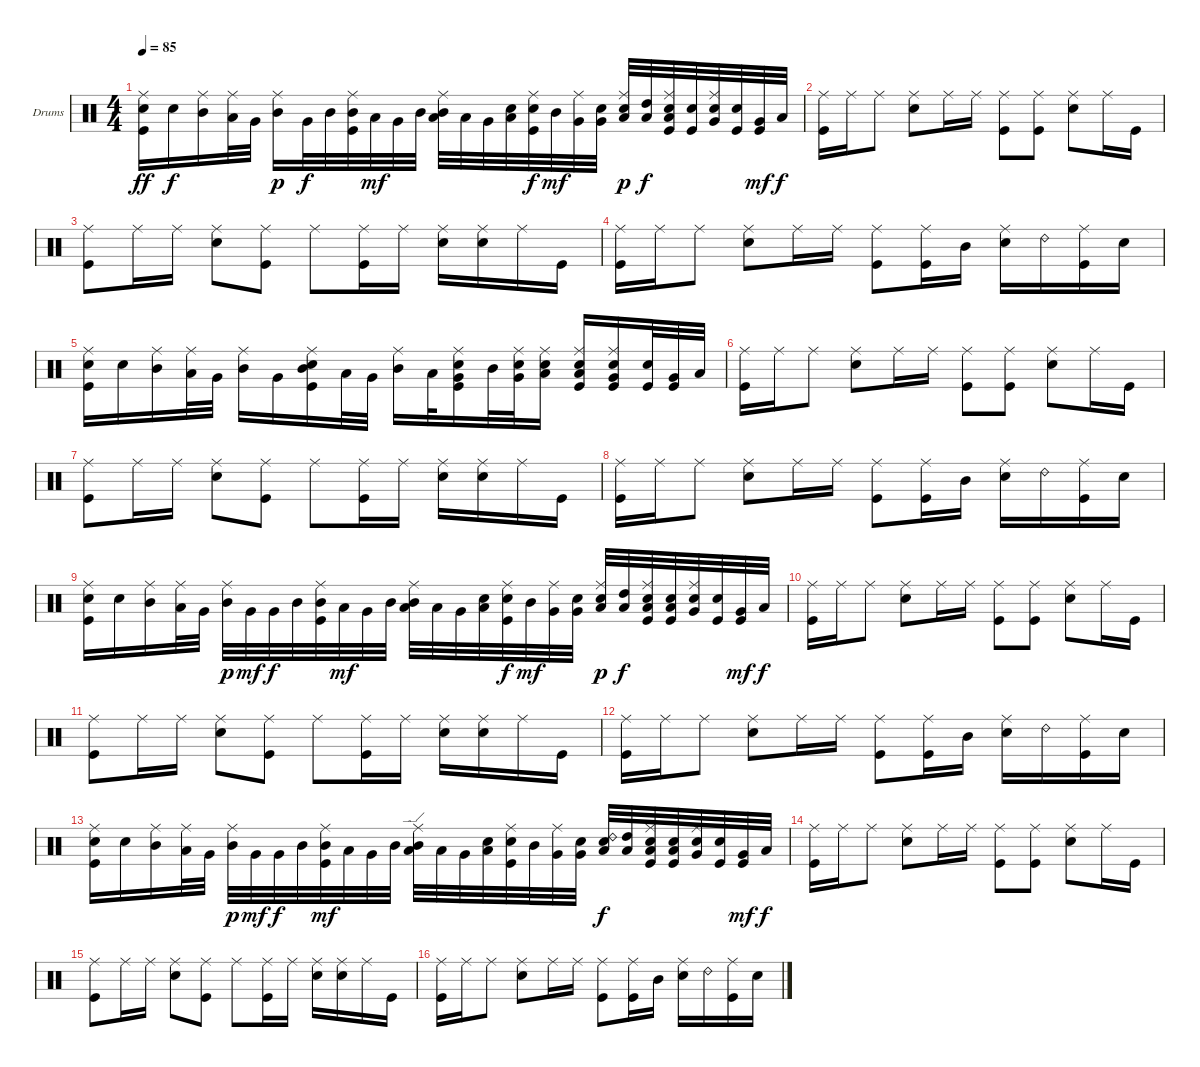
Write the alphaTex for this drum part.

\bracketExtendMode groupsimilarinstruments
\firstSystemTrackNameOrientation horizontal
\otherSystemsTrackNameOrientation horizontal
\track ("Drumkit" "Drums") {instrument percussion}
\staff {score}
\articulation defaults
\ts (4 4)
\tempo 85
\clef neutral
\ks c
("Kick (hit)" "Snare (hit) 2" "Ride (middle)").16{dy ff} "Snare (hit) 2".16{dy f} ("Mid Tom (hit)" "Ride (middle)").16 ("Low Tom (hit)" "Ride (middle)").32 "Very Low Tom (hit)".32 ("Mid Tom (hit)" "Ride (middle)").16{dy p} "Very Low Tom (hit)".32{dy f} "Mid Tom (hit)".32 ("Kick (hit)" "Mid Tom (hit)" "Ride (middle)").32 "Low Tom (hit)".32{dy mf} "Very Low Tom (hit)".32 "Mid Tom (hit)".32 ("Low Tom (hit)" "Mid Tom (hit)" "Ride (middle)").32 "Low Tom (hit)".32 "Very Low Tom (hit)".32 ("Snare (hit) 2" "Low Tom (hit)").32 ("Kick (hit)" "Snare (hit) 2" "Ride (middle)").32{dy f} "Mid Tom (hit)".32{dy mf} ("Very Low Tom (hit)" "Ride (middle)").32 ("Snare (hit) 2" "Very Low Tom (hit)").32 ("Snare (hit) 2" "Low Tom (hit)" "Ride (middle)").32{dy p} ("High Tom (hit)" "Low Tom (hit)").32{dy f} ("Kick (hit)" "Snare (hit) 2" "Low Tom (hit)" "Ride (middle)").32 ("Kick (hit)" "Snare (hit) 2").32 ("Snare (hit) 2" "Very Low Tom (hit)" "Ride (middle)").32 ("Kick (hit)" "Snare (hit) 2").32 ("Kick (hit)" "Very Low Tom (hit)").32{dy mf} "Low Tom (hit)".32{dy f} |
("Kick (hit)" "Ride (middle)").16 "Ride (middle)".16 "Ride (middle)".8 ("Snare (hit) 2" "Ride (middle)").8 "Ride (middle)".16 "Ride (middle)".16 ("Kick (hit)" "Ride (middle)").8 ("Kick (hit)" "Ride (middle)").8 ("Snare (hit) 2" "Ride (middle)").8 "Ride (middle)".16 "Kick (hit)".16 |
("Kick (hit)" "Ride (middle)").8 "Ride (middle)".16 "Ride (middle)".16 ("Snare (hit) 2" "Ride (middle)").8 ("Kick (hit)" "Ride (middle)").8 "Ride (middle)".8 ("Kick (hit)" "Ride (middle)").16 "Ride (middle)".16 ("Snare (hit) 2" "Ride (middle)").16 ("Snare (hit) 2" "Ride (middle)").16 "Ride (middle)".16 "Kick (hit)".16 |
("Kick (hit)" "Ride (middle)").16 "Ride (middle)".16 "Ride (middle)".8 ("Snare (hit) 2" "Ride (middle)").8 "Ride (middle)".16 "Ride (middle)".16 ("Kick (hit)" "Ride (middle)").8 ("Kick (hit)" "Ride (middle)").16 "Mid Tom (hit)".16 ("Snare (hit) 2" "Ride (middle)").16 "Ride (bell) 2".16 ("Kick (hit)" "Ride (middle)").16 "Snare (hit) 2".16 |
("Kick (hit)" "Snare (hit) 2" "Ride (middle)").16 "Snare (hit) 2".16 ("Mid Tom (hit)" "Ride (middle)").16 ("Low Tom (hit)" "Ride (middle)").32 "Very Low Tom (hit)".32 ("Mid Tom (hit)" "Ride (middle)").16 "Very Low Tom (hit)".16 ("Kick (hit)" "Snare (hit) 2" "Mid Tom (hit)" "Ride (middle)").16 "Low Tom (hit)".32 "Very Low Tom (hit)".32 ("Mid Tom (hit)" "Ride (middle)").16 "Low Tom (hit)".32 ("Kick (hit)" "Snare (hit) 2" "Very Low Tom (hit)" "Ride (middle)").16 "Mid Tom (hit)".32 ("Snare (hit) 2" "Very Low Tom (hit)" "Ride (middle)").32 ("Snare (hit) 2" "Low Tom (hit)" "Ride (middle)").16 ("Kick (hit)" "Snare (hit) 2" "Low Tom (hit)" "Ride (middle)").16 ("Kick (hit)" "Snare (hit) 2" "Very Low Tom (hit)" "Ride (middle)").16 ("Kick (hit)" "Snare (hit) 2").32 ("Kick (hit)" "Very Low Tom (hit)").32 "Low Tom (hit)".32 |
("Kick (hit)" "Ride (middle)").16 "Ride (middle)".16 "Ride (middle)".8 ("Snare (hit) 2" "Ride (middle)").8 "Ride (middle)".16 "Ride (middle)".16 ("Kick (hit)" "Ride (middle)").8 ("Kick (hit)" "Ride (middle)").8 ("Snare (hit) 2" "Ride (middle)").8 "Ride (middle)".16 "Kick (hit)".16 |
("Kick (hit)" "Ride (middle)").8 "Ride (middle)".16 "Ride (middle)".16 ("Snare (hit) 2" "Ride (middle)").8 ("Kick (hit)" "Ride (middle)").8 "Ride (middle)".8 ("Kick (hit)" "Ride (middle)").16 "Ride (middle)".16 ("Snare (hit) 2" "Ride (middle)").16 ("Snare (hit) 2" "Ride (middle)").16 "Ride (middle)".16 "Kick (hit)".16 |
("Kick (hit)" "Ride (middle)").16 "Ride (middle)".16 "Ride (middle)".8 ("Snare (hit) 2" "Ride (middle)").8 "Ride (middle)".16 "Ride (middle)".16 ("Kick (hit)" "Ride (middle)").8 ("Kick (hit)" "Ride (middle)").16 "Mid Tom (hit)".16 ("Snare (hit) 2" "Ride (middle)").16 "Ride (bell) 2".16 ("Kick (hit)" "Ride (middle)").16 "Snare (hit) 2".16 |
("Snare (hit) 2" "Kick (hit)" "Ride (middle)").16 "Snare (hit) 2".16 ("Mid Tom (hit)" "Ride (middle)").16 ("Low Tom (hit)" "Ride (middle)").32 "Very Low Tom (hit)".32 ("Mid Tom (hit)" "Ride (middle)").32{dy p} "Very Low Tom (hit)".32{dy mf} "Very Low Tom (hit)".32{dy f} "Mid Tom (hit)".32 ("Kick (hit)" "Mid Tom (hit)" "Ride (middle)").32 "Low Tom (hit)".32{dy mf} "Very Low Tom (hit)".32 "Mid Tom (hit)".32 ("Low Tom (hit)" "Mid Tom (hit)" "Ride (middle)").32 "Low Tom (hit)".32 "Very Low Tom (hit)".32 ("Snare (hit) 2" "Low Tom (hit)").32 ("Kick (hit)" "Snare (hit) 2" "Ride (middle)").32{dy f} "Mid Tom (hit)".32{dy mf} ("Very Low Tom (hit)" "Ride (middle)").32 ("Snare (hit) 2" "Very Low Tom (hit)").32 ("Snare (hit) 2" "Low Tom (hit)" "Ride (middle)").32{dy p} ("Low Tom (hit)" "High Tom (hit)").32{dy f} ("Kick (hit)" "Low Tom (hit)" "Snare (hit) 2" "Ride (middle)").32 ("Kick (hit)" "Snare (hit) 2" "Low Tom (hit)").32 ("Snare (hit) 2" "Very Low Tom (hit)" "Ride (middle)").32 ("Kick (hit)" "Snare (hit) 2").32 ("Kick (hit)" "Very Low Tom (hit)").32{dy mf} "Low Tom (hit)".32{dy f} |
("Kick (hit)" "Ride (middle)").16 "Ride (middle)".16 "Ride (middle)".8 ("Snare (hit) 2" "Ride (middle)").8 "Ride (middle)".16 "Ride (middle)".16 ("Kick (hit)" "Ride (middle)").8 ("Kick (hit)" "Ride (middle)").8 ("Snare (hit) 2" "Ride (middle)").8 "Ride (middle)".16 "Kick (hit)".16 |
("Kick (hit)" "Ride (middle)").8 "Ride (middle)".16 "Ride (middle)".16 ("Snare (hit) 2" "Ride (middle)").8 ("Kick (hit)" "Ride (middle)").8 "Ride (middle)".8 ("Kick (hit)" "Ride (middle)").16 "Ride (middle)".16 ("Snare (hit) 2" "Ride (middle)").16 ("Snare (hit) 2" "Ride (middle)").16 "Ride (middle)".16 "Kick (hit)".16 |
("Kick (hit)" "Ride (middle)").16 "Ride (middle)".16 "Ride (middle)".8 ("Snare (hit) 2" "Ride (middle)").8 "Ride (middle)".16 "Ride (middle)".16 ("Kick (hit)" "Ride (middle)").8 ("Kick (hit)" "Ride (middle)").16 "Mid Tom (hit)".16 ("Snare (hit) 2" "Ride (middle)").16 "Ride (bell) 2".16 ("Kick (hit)" "Ride (middle)").16 "Snare (hit) 2".16 |
("Snare (hit) 2" "Kick (hit)" "Ride (middle)").16 "Snare (hit) 2".16 ("Mid Tom (hit)" "Ride (middle)").16 ("Low Tom (hit)" "Ride (middle)").32 "Very Low Tom (hit)".32 ("Mid Tom (hit)" "Ride (middle)").32{dy p} "Very Low Tom (hit)".32{dy mf} "Very Low Tom (hit)".32{dy f} "Mid Tom (hit)".32 ("Mid Tom (hit)" "Ride (middle)" "Kick (hit)").32{dy mf} "Low Tom (hit)".32 "Very Low Tom (hit)".32 "Mid Tom (hit)".32 ("Low Tom (hit)" "Mid Tom (hit)" "Ride (edge)").32 "Low Tom (hit)".32 "Very Low Tom (hit)".32 ("Low Tom (hit)" "Snare (hit) 2").32 ("Snare (hit) 2" "Ride (middle)" "Kick (hit)").32 "Mid Tom (hit)".32 ("Very Low Tom (hit)" "Ride (middle)").32 ("Snare (hit) 2" "Very Low Tom (hit)").32 ("Ride (bell) 2" "Low Tom (hit)" "Snare (hit) 2").32{dy f} ("Low Tom (hit)" "High Tom (hit)").32 ("Kick (hit)" "Low Tom (hit)" "Snare (hit) 2" "Ride (middle)").32 ("Snare (hit) 2" "Low Tom (hit)" "Kick (hit)").32 ("Snare (hit) 2" "Ride (middle)" "Very Low Tom (hit)").32 ("Kick (hit)" "Snare (hit) 2").32 ("Kick (hit)" "Very Low Tom (hit)").32{dy mf} "Low Tom (hit)".32{dy f} |
("Kick (hit)" "Ride (middle)").16 "Ride (middle)".16 "Ride (middle)".8 ("Snare (hit) 2" "Ride (middle)").8 "Ride (middle)".16 "Ride (middle)".16 ("Kick (hit)" "Ride (middle)").8 ("Kick (hit)" "Ride (middle)").8 ("Snare (hit) 2" "Ride (middle)").8 "Ride (middle)".16 "Kick (hit)".16 |
("Kick (hit)" "Ride (middle)").8 "Ride (middle)".16 "Ride (middle)".16 ("Snare (hit) 2" "Ride (middle)").8 ("Kick (hit)" "Ride (middle)").8 "Ride (middle)".8 ("Kick (hit)" "Ride (middle)").16 "Ride (middle)".16 ("Snare (hit) 2" "Ride (middle)").16 ("Snare (hit) 2" "Ride (middle)").16 "Ride (middle)".16 "Kick (hit)".16 |
("Kick (hit)" "Ride (middle)").16 "Ride (middle)".16 "Ride (middle)".8 ("Snare (hit) 2" "Ride (middle)").8 "Ride (middle)".16 "Ride (middle)".16 ("Kick (hit)" "Ride (middle)").8 ("Kick (hit)" "Ride (middle)").16 "Mid Tom (hit)".16 ("Snare (hit) 2" "Ride (middle)").16 "Ride (bell) 2".16 ("Kick (hit)" "Ride (middle)").16 "Snare (hit) 2".16
